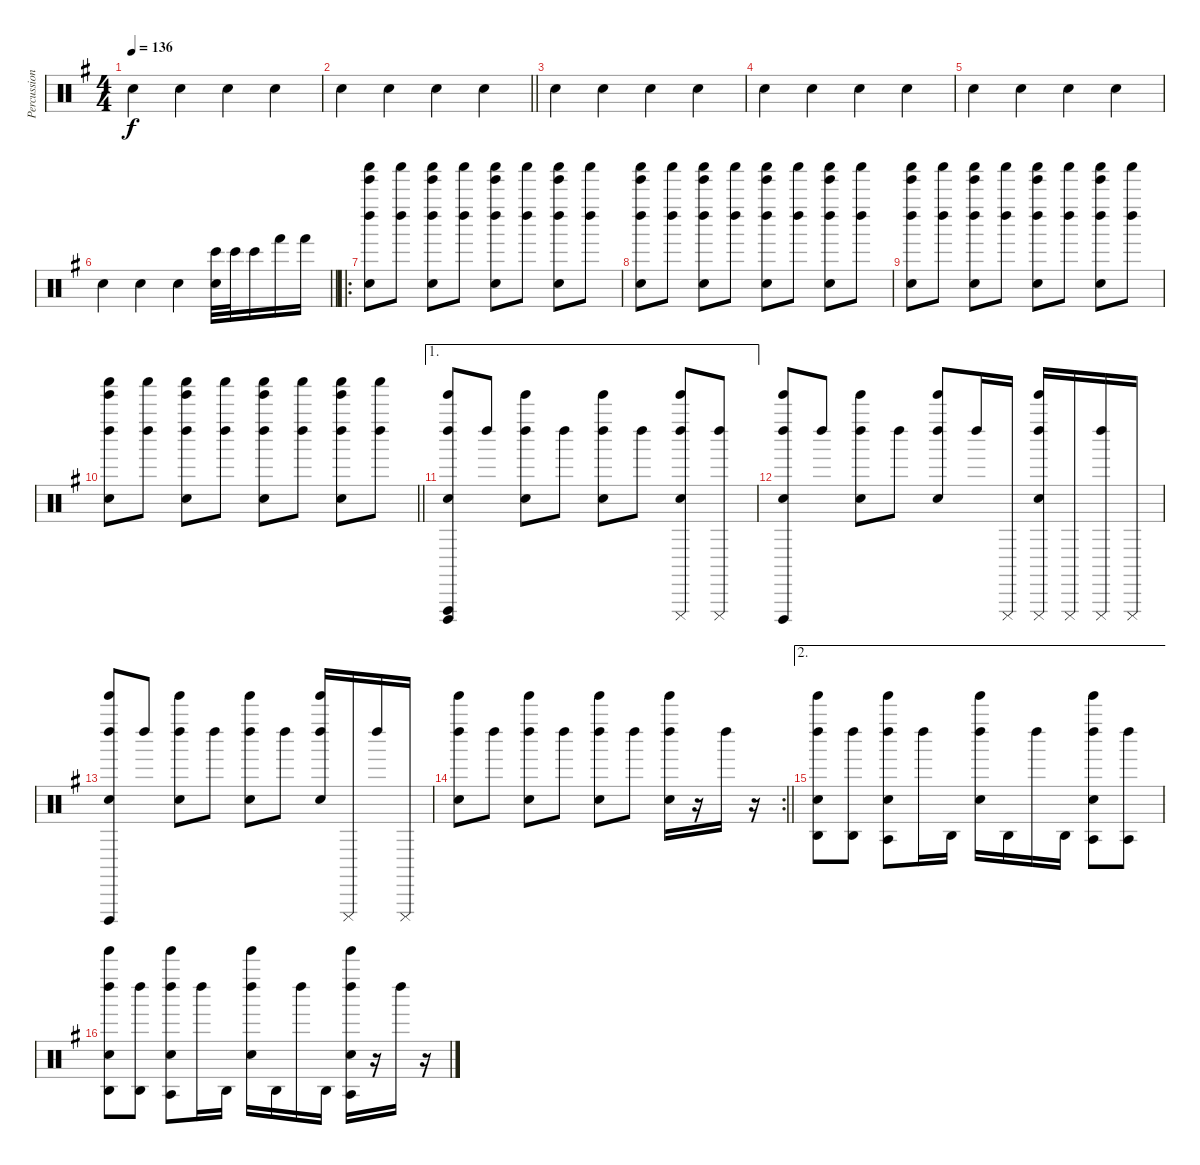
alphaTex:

\track ("Percussions" "Percussion") {instrument percussion}
\staff {score}
\articulation defaults
\ts (4 4)
\tempo 136
\clef neutral
\ks g "Hand Clap (hit)".4{dy f} "Hand Clap (hit)".4 "Hand Clap (hit)".4 "Hand Clap (hit)".4
|
\barLineRight lightlight "Hand Clap (hit)".4 "Hand Clap (hit)".4 "Hand Clap (hit)".4 "Hand Clap (hit)".4
|
"Hand Clap (hit)".4 "Hand Clap (hit)".4 "Hand Clap (hit)".4 "Hand Clap (hit)".4 |
"Hand Clap (hit)".4 "Hand Clap (hit)".4 "Hand Clap (hit)".4 "Hand Clap (hit)".4 |
"Hand Clap (hit)".4 "Hand Clap (hit)".4 "Hand Clap (hit)".4 "Hand Clap (hit)".4 |
\barLineRight lightlight "Hand Clap (hit)".4 "Hand Clap (hit)".4 "Hand Clap (hit)".4
("Hand Clap (hit)" "Bongo High (hit)").32 "Bongo High (hit)".32 "Bongo High (hit)".16 "Hand (hit)".16 "Hand (hit)".16 |
\ro
("Tinkle Bell (hit)" "Left Maraca (hit)" "Shaker (hit)" "Hand Clap (hit)").8 ("Left Maraca (hit)" "Shaker (hit)").8 ("Tinkle Bell (hit)" "Left Maraca (hit)" "Shaker (hit)" "Hand Clap (hit)").8 ("Left Maraca (hit)" "Shaker (hit)").8 ("Tinkle Bell (hit)" "Left Maraca (hit)" "Shaker (hit)" "Hand Clap (hit)").8 ("Left Maraca (hit)" "Shaker (hit)").8 ("Tinkle Bell (hit)" "Left Maraca (hit)" "Shaker (hit)" "Hand Clap (hit)").8 ("Left Maraca (hit)" "Shaker (hit)").8 |
("Tinkle Bell (hit)" "Left Maraca (hit)" "Shaker (hit)" "Hand Clap (hit)").8 ("Left Maraca (hit)" "Shaker (hit)").8 ("Tinkle Bell (hit)" "Left Maraca (hit)" "Shaker (hit)" "Hand Clap (hit)").8 ("Left Maraca (hit)" "Shaker (hit)").8 ("Tinkle Bell (hit)" "Left Maraca (hit)" "Shaker (hit)" "Hand Clap (hit)").8 ("Left Maraca (hit)" "Shaker (hit)").8 ("Tinkle Bell (hit)" "Left Maraca (hit)" "Shaker (hit)" "Hand Clap (hit)").8 ("Left Maraca (hit)" "Shaker (hit)").8 |
("Tinkle Bell (hit)" "Left Maraca (hit)" "Shaker (hit)" "Hand Clap (hit)").8 ("Left Maraca (hit)" "Shaker (hit)").8 ("Tinkle Bell (hit)" "Left Maraca (hit)" "Shaker (hit)" "Hand Clap (hit)").8 ("Left Maraca (hit)" "Shaker (hit)").8 ("Tinkle Bell (hit)" "Left Maraca (hit)" "Shaker (hit)" "Hand Clap (hit)").8 ("Left Maraca (hit)" "Shaker (hit)").8 ("Tinkle Bell (hit)" "Left Maraca (hit)" "Shaker (hit)" "Hand Clap (hit)").8 ("Left Maraca (hit)" "Shaker (hit)").8 |
\barLineRight lightlight
("Tinkle Bell (hit)" "Left Maraca (hit)" "Shaker (hit)" "Hand Clap (hit)").8 ("Left Maraca (hit)" "Shaker (hit)").8 ("Tinkle Bell (hit)" "Left Maraca (hit)" "Shaker (hit)" "Hand Clap (hit)").8 ("Left Maraca (hit)" "Shaker (hit)").8 ("Tinkle Bell (hit)" "Left Maraca (hit)" "Shaker (hit)" "Hand Clap (hit)").8 ("Left Maraca (hit)" "Shaker (hit)").8 ("Tinkle Bell (hit)" "Left Maraca (hit)" "Shaker (hit)" "Hand Clap (hit)").8 ("Left Maraca (hit)" "Shaker (hit)").8 |
\ae 1
("Tinkle Bell (hit)" "Left Maraca (hit)" "Cuica (open)" "Vibraslap (hit)" "Hand Clap (hit)").8 "Left Maraca (hit)".8 ("Tinkle Bell (hit)" "Left Maraca (hit)" "Hand Clap (hit)").8 "Left Maraca (hit)".8 ("Tinkle Bell (hit)" "Left Maraca (hit)" "Hand Clap (hit)").8 "Left Maraca (hit)".8 ("Tinkle Bell (hit)" "Left Maraca (hit)" "Cuica (mute)" "Hand Clap (hit)").8 ("Left Maraca (hit)" "Cuica (mute)").8 |
("Tinkle Bell (hit)" "Left Maraca (hit)" "Cuica (open)" "Hand Clap (hit)").8 "Left Maraca (hit)".8 ("Tinkle Bell (hit)" "Left Maraca (hit)" "Hand Clap (hit)").8 "Left Maraca (hit)".8 ("Tinkle Bell (hit)" "Left Maraca (hit)" "Hand Clap (hit)").8 "Left Maraca (hit)".16 "Cuica (mute)".16 ("Tinkle Bell (hit)" "Left Maraca (hit)" "Cuica (mute)" "Hand Clap (hit)").16 "Cuica (mute)".16 ("Left Maraca (hit)" "Cuica (mute)").16 "Cuica (mute)".16 |
("Tinkle Bell (hit)" "Left Maraca (hit)" "Cuica (open)" "Hand Clap (hit)").8 "Left Maraca (hit)".8 ("Tinkle Bell (hit)" "Left Maraca (hit)" "Hand Clap (hit)").8 "Left Maraca (hit)".8 ("Tinkle Bell (hit)" "Left Maraca (hit)" "Hand Clap (hit)").8 "Left Maraca (hit)".8 ("Tinkle Bell (hit)" "Left Maraca (hit)" "Hand Clap (hit)").16 "Cuica (mute)".16 "Left Maraca (hit)".16 "Cuica (mute)".16 |
\rc 2
\barLineRight lightlight
("Tinkle Bell (hit)" "Left Maraca (hit)" "Hand Clap (hit)").8 "Left Maraca (hit)".8 ("Tinkle Bell (hit)" "Left Maraca (hit)" "Hand Clap (hit)").8 "Left Maraca (hit)".8 ("Tinkle Bell (hit)" "Left Maraca (hit)" "Hand Clap (hit)").8 "Left Maraca (hit)".8 ("Tinkle Bell (hit)" "Left Maraca (hit)" "Hand Clap (hit)").16 r.16 "Left Maraca (hit)".16 r.16 |
\ae 2
("Tinkle Bell (hit)" "Left Maraca (hit)" "Agogo high (hit)" "Hand Clap (hit)").8 ("Left Maraca (hit)" "Agogo high (hit)").8 ("Tinkle Bell (hit)" "Left Maraca (hit)" "Agogo tow (hit)" "Hand Clap (hit)").8 "Left Maraca (hit)".16 "Agogo high (hit)".16 ("Tinkle Bell (hit)" "Left Maraca (hit)" "Hand Clap (hit)").16 "Agogo high (hit)".16 "Left Maraca (hit)".16 "Agogo high (hit)".16 ("Tinkle Bell (hit)" "Left Maraca (hit)" "Agogo tow (hit)" "Hand Clap (hit)").8 ("Left Maraca (hit)" "Agogo tow (hit)").8 |
("Tinkle Bell (hit)" "Left Maraca (hit)" "Agogo high (hit)" "Hand Clap (hit)").8 ("Left Maraca (hit)" "Agogo high (hit)").8 ("Tinkle Bell (hit)" "Left Maraca (hit)" "Agogo tow (hit)" "Hand Clap (hit)").8 "Left Maraca (hit)".16 "Agogo high (hit)".16 ("Tinkle Bell (hit)" "Left Maraca (hit)" "Hand Clap (hit)").16 "Agogo high (hit)".16 "Left Maraca (hit)".16 "Agogo high (hit)".16 ("Tinkle Bell (hit)" "Left Maraca (hit)" "Agogo tow (hit)" "Hand Clap (hit)").16 r.16 "Left Maraca (hit)".16 r.16
